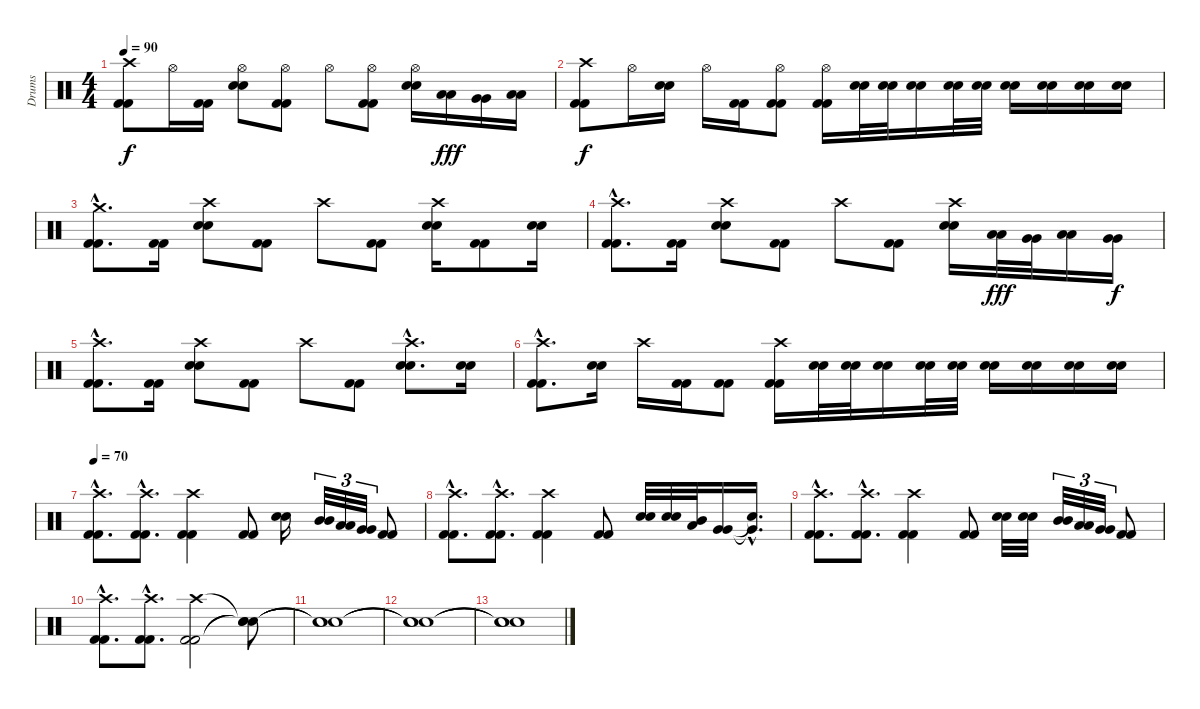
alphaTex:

\track ("Drums" "Drums") {instrument percussion}
\staff {score}
\articulation defaults
\ts (4 4)
\tempo 90
\clef neutral
\ks c
("Crash high (hit)" "Kick (hit) 2" "Kick (hit) 2").8{dy f} "Hi-Hat (open)".16 ("Kick (hit) 2" "Kick (hit) 2").16 ("Hi-Hat (open)" "Electric Snare (hit)" "Snare (hit) 2").8 ("Hi-Hat (open)" "Kick (hit) 2" "Kick (hit) 2").8 "Hi-Hat (open)".8 ("Hi-Hat (open)" "Kick (hit) 2" "Kick (hit) 2").8 ("Hi-Hat (open)" "Electric Snare (hit)" "Snare (hit) 2").16 ("Low Tom (hit)" "Low Tom (hit)").16{dy fff} ("Very Low Tom (hit)" "Very Low Tom (hit)").16 ("Low Floor Tom (hit)" "Low Floor Tom (hit)").16 |
("Crash high (hit)" "Kick (hit) 2" "Kick (hit) 2").8{dy f} "Hi-Hat (open)".16 ("Electric Snare (hit)" "Snare (hit) 2").16 "Hi-Hat (open)".16 ("Kick (hit) 2" "Kick (hit) 2").16 ("Hi-Hat (open)" "Kick (hit) 2" "Kick (hit) 2").8 ("Hi-Hat (open)" "Kick (hit) 2" "Kick (hit) 2").16 ("Electric Snare (hit)" "Snare (hit) 2").32 ("Electric Snare (hit)" "Snare (hit) 2").32 ("Electric Snare (hit)" "Snare (hit) 2").16 ("Electric Snare (hit)" "Snare (hit) 2").32 ("Electric Snare (hit)" "Snare (hit) 2").32 ("Electric Snare (hit)" "Snare (hit) 2").16 ("Electric Snare (hit)" "Snare (hit) 2").16 ("Electric Snare (hit)" "Snare (hit) 2").16 ("Electric Snare (hit)" "Snare (hit) 2").16 |
("Crash medium (hit)"{hac} "Kick (hit) 2"{hac} "Kick (hit) 2"{hac}).8{d} ("Kick (hit) 2" "Kick (hit) 2").16 ("Crash high (hit)" "Electric Snare (hit)" "Snare (hit) 2").8 ("Kick (hit) 2" "Kick (hit) 2").8 "Crash high (hit)".8 ("Kick (hit) 2" "Kick (hit) 2").8 ("Crash high (hit)" "Electric Snare (hit)" "Snare (hit) 2").16 ("Kick (hit) 2" "Kick (hit) 2").8 ("Electric Snare (hit)" "Snare (hit) 2").16 |
("Crash high (hit)"{hac} "Kick (hit) 2"{hac} "Kick (hit) 2"{hac}).8{d} ("Kick (hit) 2" "Kick (hit) 2").16 ("Crash high (hit)" "Electric Snare (hit)" "Snare (hit) 2").8 ("Kick (hit) 2" "Kick (hit) 2").8 "Crash high (hit)".8 ("Kick (hit) 2" "Kick (hit) 2").8 ("Crash high (hit)" "Electric Snare (hit)" "Snare (hit) 2").16 ("Low Tom (hit)" "Low Tom (hit)").32{dy fff} ("Very Low Tom (hit)" "Very Low Tom (hit)").32 ("Low Floor Tom (hit)" "Low Floor Tom (hit)").16 ("Very Low Tom (hit)" "Very Low Tom (hit)").16{dy f} |
("Crash high (hit)"{hac} "Kick (hit) 2"{hac} "Kick (hit) 2"{hac}).8{d} ("Kick (hit) 2" "Kick (hit) 2").16 ("Crash high (hit)" "Electric Snare (hit)" "Snare (hit) 2").8 ("Kick (hit) 2" "Kick (hit) 2").8 "Crash high (hit)".8 ("Kick (hit) 2" "Kick (hit) 2").8 ("Crash high (hit)"{hac} "Electric Snare (hit)"{hac} "Snare (hit) 2"{hac}).8{d} ("Electric Snare (hit)" "Snare (hit) 2").16 |
("Crash high (hit)"{hac} "Kick (hit) 2"{hac} "Kick (hit) 2"{hac}).8{d} ("Electric Snare (hit)" "Snare (hit) 2").16 "Crash high (hit)".16 ("Kick (hit) 2" "Kick (hit) 2").16 ("Kick (hit) 2" "Kick (hit) 2").8 ("Crash high (hit)" "Kick (hit) 2" "Kick (hit) 2").16 ("Electric Snare (hit)" "Snare (hit) 2").32 ("Electric Snare (hit)" "Snare (hit) 2").32 ("Electric Snare (hit)" "Snare (hit) 2").16 ("Electric Snare (hit)" "Snare (hit) 2").32 ("Electric Snare (hit)" "Snare (hit) 2").32 ("Electric Snare (hit)" "Snare (hit) 2").16 ("Electric Snare (hit)" "Snare (hit) 2").16 ("Electric Snare (hit)" "Snare (hit) 2").16 ("Electric Snare (hit)" "Snare (hit) 2").16 |
\tempo 70
("Crash high (hit)"{hac} "Kick (hit) 2"{hac} "Kick (hit) 2"{hac}).8{d} ("Crash high (hit)"{hac} "Kick (hit) 2"{hac} "Kick (hit) 2"{hac}).8{d} ("Crash high (hit)" "Kick (hit) 2" "Kick (hit) 2").4 ("Kick (hit) 2" "Kick (hit) 2").8 ("Electric Snare (hit)" "Snare (hit) 2").16 ("Mid Tom (hit)" "Mid Tom (hit)").32{tu (3 2)} ("Low Tom (hit)" "Low Tom (hit)").32{tu (3 2)} ("Very Low Tom (hit)" "Very Low Tom (hit)").32{tu (3 2)} ("Kick (hit) 2" "Kick (hit) 2").8 |
("Crash high (hit)"{hac} "Kick (hit) 2"{hac} "Kick (hit) 2"{hac}).8{d} ("Crash high (hit)"{hac} "Kick (hit) 2"{hac} "Kick (hit) 2"{hac}).8{d} ("Crash high (hit)" "Kick (hit) 2" "Kick (hit) 2").4 ("Kick (hit) 2" "Kick (hit) 2").8 ("Electric Snare (hit)" "Snare (hit) 2").32 ("Electric Snare (hit)" "Snare (hit) 2").32 ("Mid Tom (hit)" "Low Tom (hit)").32 ("Very Low Tom (hit)" "Very Low Tom (hit)").16 ("Snare (hit)"{hac t} "Very Low Tom (hit)"{hac t}).16{d} |
("Crash high (hit)"{hac} "Kick (hit) 2"{hac} "Kick (hit) 2"{hac}).8{d} ("Crash high (hit)"{hac} "Kick (hit) 2"{hac} "Kick (hit) 2"{hac}).8{d} ("Crash high (hit)" "Kick (hit) 2" "Kick (hit) 2").4 ("Kick (hit) 2" "Kick (hit) 2").8 ("Electric Snare (hit)" "Snare (hit) 2").32 ("Electric Snare (hit)" "Snare (hit) 2").32 ("Mid Tom (hit)" "Mid Tom (hit)").32{tu (3 2)} ("Low Tom (hit)" "Low Tom (hit)").32{tu (3 2)} ("Very Low Tom (hit)" "Very Low Tom (hit)").32{tu (3 2)} ("Kick (hit) 2" "Kick (hit) 2").8 |
("Crash high (hit)"{hac} "Kick (hit) 2"{hac} "Kick (hit) 2"{hac}).8{d} ("Crash high (hit)"{hac} "Kick (hit) 2"{hac} "Kick (hit) 2"{hac}).8{d} ("Crash high (hit)" "Kick (hit) 2" "Kick (hit) 2").2 ("Snare (hit)"{t} "Snare (hit)"{t} "Snare (hit)"{t}).8 |
("Snare (hit)"{t} "Snare (hit)"{t} "Snare (hit)"{t}).1 |
("Snare (hit)"{t} "Snare (hit)"{t} "Snare (hit)"{t}).1 |
("Snare (hit)"{t} "Snare (hit)"{t} "Snare (hit)"{t}).1
